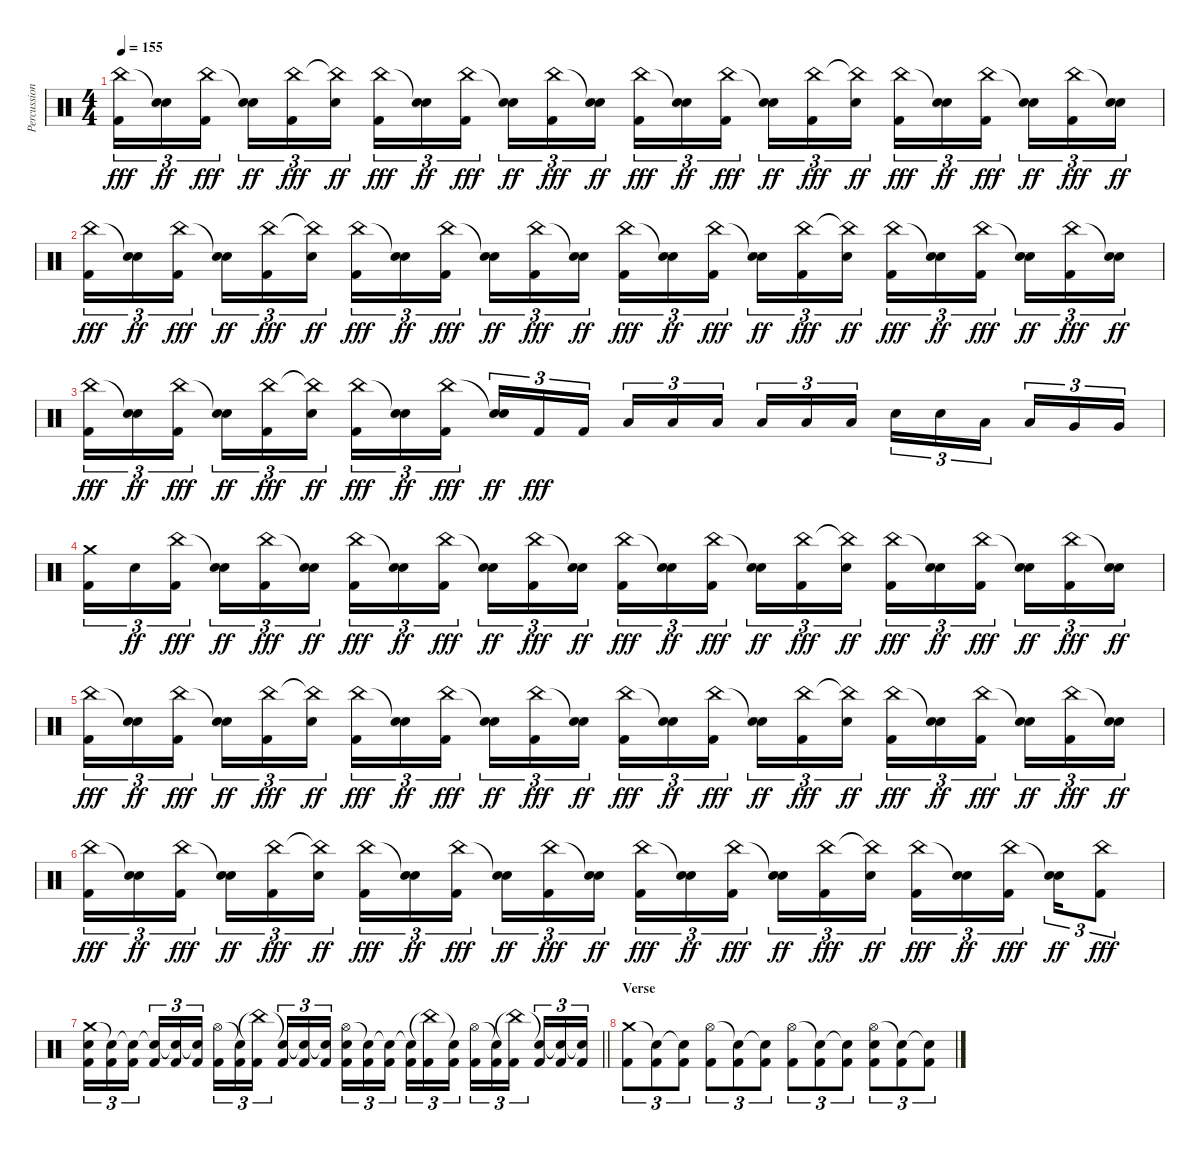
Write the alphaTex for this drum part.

\track ("Percussion" "Percussion") {instrument percussion}
\staff {score}
\articulation defaults
\ts (4 4)
\tempo 155
\clef neutral
\ks c
("China (hit)" "Kick (hit) 2").16{tu (3 2) dy fff} ("Snare (hit)"{t} "Electric Snare (hit)").16{tu (3 2) dy ff} ("China (hit)" "Kick (hit) 2").16{tu (3 2) dy fff beam splitsecondary} ("Snare (hit)"{t} "Electric Snare (hit)").16{tu (3 2) dy ff} ("China (hit)" "Kick (hit) 2").16{tu (3 2) dy fff} ("China (hit)"{t} "Electric Snare (hit)").16{tu (3 2) dy ff} ("China (hit)" "Kick (hit) 2").16{tu (3 2) dy fff} ("Snare (hit)"{t} "Electric Snare (hit)").16{tu (3 2) dy ff} ("China (hit)" "Kick (hit) 2").16{tu (3 2) dy fff beam splitsecondary} ("Snare (hit)"{t} "Electric Snare (hit)").16{tu (3 2) dy ff} ("China (hit)" "Kick (hit) 2").16{tu (3 2) dy fff} ("Snare (hit)"{t} "Electric Snare (hit)").16{tu (3 2) dy ff} ("China (hit)" "Kick (hit) 2").16{tu (3 2) dy fff} ("Snare (hit)"{t} "Electric Snare (hit)").16{tu (3 2) dy ff} ("China (hit)" "Kick (hit) 2").16{tu (3 2) dy fff beam splitsecondary} ("Snare (hit)"{t} "Electric Snare (hit)").16{tu (3 2) dy ff} ("China (hit)" "Kick (hit) 2").16{tu (3 2) dy fff} ("China (hit)"{t} "Electric Snare (hit)").16{tu (3 2) dy ff} ("China (hit)" "Kick (hit) 2").16{tu (3 2) dy fff} ("Snare (hit)"{t} "Electric Snare (hit)").16{tu (3 2) dy ff} ("China (hit)" "Kick (hit) 2").16{tu (3 2) dy fff beam splitsecondary} ("Snare (hit)"{t} "Electric Snare (hit)").16{tu (3 2) dy ff} ("China (hit)" "Kick (hit) 2").16{tu (3 2) dy fff} ("Snare (hit)"{t} "Electric Snare (hit)").16{tu (3 2) dy ff} |
("China (hit)" "Kick (hit) 2").16{tu (3 2) dy fff} ("Snare (hit)"{t} "Electric Snare (hit)").16{tu (3 2) dy ff} ("China (hit)" "Kick (hit) 2").16{tu (3 2) dy fff beam splitsecondary} ("Snare (hit)"{t} "Electric Snare (hit)").16{tu (3 2) dy ff} ("China (hit)" "Kick (hit) 2").16{tu (3 2) dy fff} ("China (hit)"{t} "Electric Snare (hit)").16{tu (3 2) dy ff} ("China (hit)" "Kick (hit) 2").16{tu (3 2) dy fff} ("Snare (hit)"{t} "Electric Snare (hit)").16{tu (3 2) dy ff} ("China (hit)" "Kick (hit) 2").16{tu (3 2) dy fff beam splitsecondary} ("Snare (hit)"{t} "Electric Snare (hit)").16{tu (3 2) dy ff} ("China (hit)" "Kick (hit) 2").16{tu (3 2) dy fff} ("Snare (hit)"{t} "Electric Snare (hit)").16{tu (3 2) dy ff} ("China (hit)" "Kick (hit) 2").16{tu (3 2) dy fff} ("Snare (hit)"{t} "Electric Snare (hit)").16{tu (3 2) dy ff} ("China (hit)" "Kick (hit) 2").16{tu (3 2) dy fff beam splitsecondary} ("Snare (hit)"{t} "Electric Snare (hit)").16{tu (3 2) dy ff} ("China (hit)" "Kick (hit) 2").16{tu (3 2) dy fff} ("China (hit)"{t} "Electric Snare (hit)").16{tu (3 2) dy ff} ("China (hit)" "Kick (hit) 2").16{tu (3 2) dy fff} ("Snare (hit)"{t} "Electric Snare (hit)").16{tu (3 2) dy ff} ("China (hit)" "Kick (hit) 2").16{tu (3 2) dy fff beam splitsecondary} ("Snare (hit)"{t} "Electric Snare (hit)").16{tu (3 2) dy ff} ("China (hit)" "Kick (hit) 2").16{tu (3 2) dy fff} ("Snare (hit)"{t} "Electric Snare (hit)").16{tu (3 2) dy ff} |
("China (hit)" "Kick (hit) 2").16{tu (3 2) dy fff} ("Snare (hit)"{t} "Electric Snare (hit)").16{tu (3 2) dy ff} ("China (hit)" "Kick (hit) 2").16{tu (3 2) dy fff beam splitsecondary} ("Snare (hit)"{t} "Electric Snare (hit)").16{tu (3 2) dy ff} ("China (hit)" "Kick (hit) 2").16{tu (3 2) dy fff} ("China (hit)"{t} "Electric Snare (hit)").16{tu (3 2) dy ff} ("China (hit)" "Kick (hit) 2").16{tu (3 2) dy fff} ("Snare (hit)"{t} "Electric Snare (hit)").16{tu (3 2) dy ff} ("China (hit)" "Kick (hit) 2").16{tu (3 2) dy fff beam splitsecondary} ("Snare (hit)"{t} "Electric Snare (hit)").16{tu (3 2) dy ff} "Kick (hit) 2".16{tu (3 2) dy fff} "Kick (hit) 2".16{tu (3 2)} "Low Tom (hit)".16{tu (3 2)} "Low Tom (hit)".16{tu (3 2)} "Low Tom (hit)".16{tu (3 2) beam splitsecondary} "Low Tom (hit)".16{tu (3 2)} "Low Tom (hit)".16{tu (3 2)} "Low Tom (hit)".16{tu (3 2)} "Electric Snare (hit)".16{tu (3 2)} "Electric Snare (hit)".16{tu (3 2)} "Low Tom (hit)".16{tu (3 2) beam splitsecondary} "Low Tom (hit)".16{tu (3 2)} "Very Low Tom (hit)".16{tu (3 2)} "Very Low Tom (hit)".16{tu (3 2)} |
("Crash medium (hit)" "Kick (hit) 2").16{tu (3 2)} "Electric Snare (hit)".16{tu (3 2) dy ff} ("China (hit)" "Kick (hit) 2").16{tu (3 2) dy fff beam splitsecondary} ("Snare (hit)"{t} "Electric Snare (hit)").16{tu (3 2) dy ff} ("China (hit)" "Kick (hit) 2").16{tu (3 2) dy fff} ("Snare (hit)"{t} "Electric Snare (hit)").16{tu (3 2) dy ff} ("China (hit)" "Kick (hit) 2").16{tu (3 2) dy fff} ("Snare (hit)"{t} "Electric Snare (hit)").16{tu (3 2) dy ff} ("China (hit)" "Kick (hit) 2").16{tu (3 2) dy fff beam splitsecondary} ("Snare (hit)"{t} "Electric Snare (hit)").16{tu (3 2) dy ff} ("China (hit)" "Kick (hit) 2").16{tu (3 2) dy fff} ("Snare (hit)"{t} "Electric Snare (hit)").16{tu (3 2) dy ff} ("China (hit)" "Kick (hit) 2").16{tu (3 2) dy fff} ("Snare (hit)"{t} "Electric Snare (hit)").16{tu (3 2) dy ff} ("China (hit)" "Kick (hit) 2").16{tu (3 2) dy fff beam splitsecondary} ("Snare (hit)"{t} "Electric Snare (hit)").16{tu (3 2) dy ff} ("China (hit)" "Kick (hit) 2").16{tu (3 2) dy fff} ("China (hit)"{t} "Electric Snare (hit)").16{tu (3 2) dy ff} ("China (hit)" "Kick (hit) 2").16{tu (3 2) dy fff} ("Snare (hit)"{t} "Electric Snare (hit)").16{tu (3 2) dy ff} ("China (hit)" "Kick (hit) 2").16{tu (3 2) dy fff beam splitsecondary} ("Snare (hit)"{t} "Electric Snare (hit)").16{tu (3 2) dy ff} ("China (hit)" "Kick (hit) 2").16{tu (3 2) dy fff} ("Snare (hit)"{t} "Electric Snare (hit)").16{tu (3 2) dy ff} |
("China (hit)" "Kick (hit) 2").16{tu (3 2) dy fff} ("Snare (hit)"{t} "Electric Snare (hit)").16{tu (3 2) dy ff} ("China (hit)" "Kick (hit) 2").16{tu (3 2) dy fff beam splitsecondary} ("Snare (hit)"{t} "Electric Snare (hit)").16{tu (3 2) dy ff} ("China (hit)" "Kick (hit) 2").16{tu (3 2) dy fff} ("China (hit)"{t} "Electric Snare (hit)").16{tu (3 2) dy ff} ("China (hit)" "Kick (hit) 2").16{tu (3 2) dy fff} ("Snare (hit)"{t} "Electric Snare (hit)").16{tu (3 2) dy ff} ("China (hit)" "Kick (hit) 2").16{tu (3 2) dy fff beam splitsecondary} ("Snare (hit)"{t} "Electric Snare (hit)").16{tu (3 2) dy ff} ("China (hit)" "Kick (hit) 2").16{tu (3 2) dy fff} ("Snare (hit)"{t} "Electric Snare (hit)").16{tu (3 2) dy ff} ("China (hit)" "Kick (hit) 2").16{tu (3 2) dy fff} ("Snare (hit)"{t} "Electric Snare (hit)").16{tu (3 2) dy ff} ("China (hit)" "Kick (hit) 2").16{tu (3 2) dy fff beam splitsecondary} ("Snare (hit)"{t} "Electric Snare (hit)").16{tu (3 2) dy ff} ("China (hit)" "Kick (hit) 2").16{tu (3 2) dy fff} ("China (hit)"{t} "Electric Snare (hit)").16{tu (3 2) dy ff} ("China (hit)" "Kick (hit) 2").16{tu (3 2) dy fff} ("Snare (hit)"{t} "Electric Snare (hit)").16{tu (3 2) dy ff} ("China (hit)" "Kick (hit) 2").16{tu (3 2) dy fff beam splitsecondary} ("Snare (hit)"{t} "Electric Snare (hit)").16{tu (3 2) dy ff} ("China (hit)" "Kick (hit) 2").16{tu (3 2) dy fff} ("Snare (hit)"{t} "Electric Snare (hit)").16{tu (3 2) dy ff} |
("China (hit)" "Kick (hit) 2").16{tu (3 2) dy fff} ("Snare (hit)"{t} "Electric Snare (hit)").16{tu (3 2) dy ff} ("China (hit)" "Kick (hit) 2").16{tu (3 2) dy fff beam splitsecondary} ("Snare (hit)"{t} "Electric Snare (hit)").16{tu (3 2) dy ff} ("China (hit)" "Kick (hit) 2").16{tu (3 2) dy fff} ("China (hit)"{t} "Electric Snare (hit)").16{tu (3 2) dy ff} ("China (hit)" "Kick (hit) 2").16{tu (3 2) dy fff} ("Snare (hit)"{t} "Electric Snare (hit)").16{tu (3 2) dy ff} ("China (hit)" "Kick (hit) 2").16{tu (3 2) dy fff beam splitsecondary} ("Snare (hit)"{t} "Electric Snare (hit)").16{tu (3 2) dy ff} ("China (hit)" "Kick (hit) 2").16{tu (3 2) dy fff} ("Snare (hit)"{t} "Electric Snare (hit)").16{tu (3 2) dy ff} ("China (hit)" "Kick (hit) 2").16{tu (3 2) dy fff} ("Snare (hit)"{t} "Electric Snare (hit)").16{tu (3 2) dy ff} ("China (hit)" "Kick (hit) 2").16{tu (3 2) dy fff beam splitsecondary} ("Snare (hit)"{t} "Electric Snare (hit)").16{tu (3 2) dy ff} ("China (hit)" "Kick (hit) 2").16{tu (3 2) dy fff} ("China (hit)"{t} "Electric Snare (hit)").16{tu (3 2) dy ff} ("China (hit)" "Kick (hit) 2").16{tu (3 2) dy fff} ("Snare (hit)"{t} "Electric Snare (hit)").16{tu (3 2) dy ff} ("China (hit)" "Kick (hit) 2").16{tu (3 2) dy fff beam splitsecondary} ("Snare (hit)"{t} "Electric Snare (hit)").16{tu (3 2) dy ff} ("China (hit)" "Kick (hit) 2").8{tu (3 2) dy fff} |
\barLineRight lightlight
("Crash medium (hit)" "Electric Snare (hit)" "Kick (hit) 2").16{tu (3 2)} ("Snare (hit)"{t} "Kick (hit) 2").16{tu (3 2)} ("Snare (hit)"{t} "Kick (hit) 2").16{tu (3 2) beam splitsecondary} ("Snare (hit)"{t} "Kick (hit) 2").16{tu (3 2)} ("Snare (hit)"{t} "Kick (hit) 2").16{tu (3 2)} ("Snare (hit)"{t} "Kick (hit) 2").16{tu (3 2)} ("Hi-Hat (open)" "Kick (hit) 2").16{tu (3 2)} ("Snare (hit)"{t} "Kick (hit) 2").16{tu (3 2)} ("China (hit)"{t} "Kick (hit) 2").16{tu (3 2) beam splitsecondary} ("Snare (hit)"{t} "Kick (hit) 2").16{tu (3 2)} ("Snare (hit)"{t} "Kick (hit) 2").16{tu (3 2)} ("Snare (hit)"{t} "Kick (hit) 2").16{tu (3 2)} ("Hi-Hat (open)" "Electric Snare (hit)" "Kick (hit) 2").16{tu (3 2)} ("Snare (hit)"{t} "Kick (hit) 2").16{tu (3 2)} ("Snare (hit)"{t} "Kick (hit) 2").16{tu (3 2) beam splitsecondary} ("Snare (hit)"{t} "Kick (hit) 2").16{tu (3 2)} ("China (hit)"{t} "Kick (hit) 2").16{tu (3 2)} ("Snare (hit)"{t} "Kick (hit) 2").16{tu (3 2)} ("Hi-Hat (open)" "Kick (hit) 2").16{tu (3 2)} ("Snare (hit)"{t} "Kick (hit) 2").16{tu (3 2)} ("China (hit)"{t} "Kick (hit) 2").16{tu (3 2) beam splitsecondary} ("Snare (hit)"{t} "Kick (hit) 2").16{tu (3 2)} ("Snare (hit)"{t} "Kick (hit) 2").16{tu (3 2)} ("Snare (hit)"{t} "Kick (hit) 2").16{tu (3 2)} |
\section ("" "Verse")
("Crash medium (hit)" "Kick (hit) 2").8{tu (3 2)} ("Snare (hit)"{t} "Kick (hit) 2").8{tu (3 2)} ("Snare (hit)"{t} "Kick (hit) 2").8{tu (3 2)} ("Hi-Hat (open)" "Kick (hit) 2").8{tu (3 2)} ("Snare (hit)"{t} "Kick (hit) 2").8{tu (3 2)} ("Snare (hit)"{t} "Kick (hit) 2").8{tu (3 2)} ("Hi-Hat (open)" "Kick (hit) 2").8{tu (3 2)} ("Snare (hit)"{t} "Kick (hit) 2").8{tu (3 2)} ("Snare (hit)"{t} "Kick (hit) 2").8{tu (3 2)} ("Hi-Hat (open)" "Electric Snare (hit)" "Kick (hit) 2").8{tu (3 2)} ("Snare (hit)"{t} "Kick (hit) 2").8{tu (3 2)} ("Snare (hit)"{t} "Kick (hit) 2").8{tu (3 2)}
